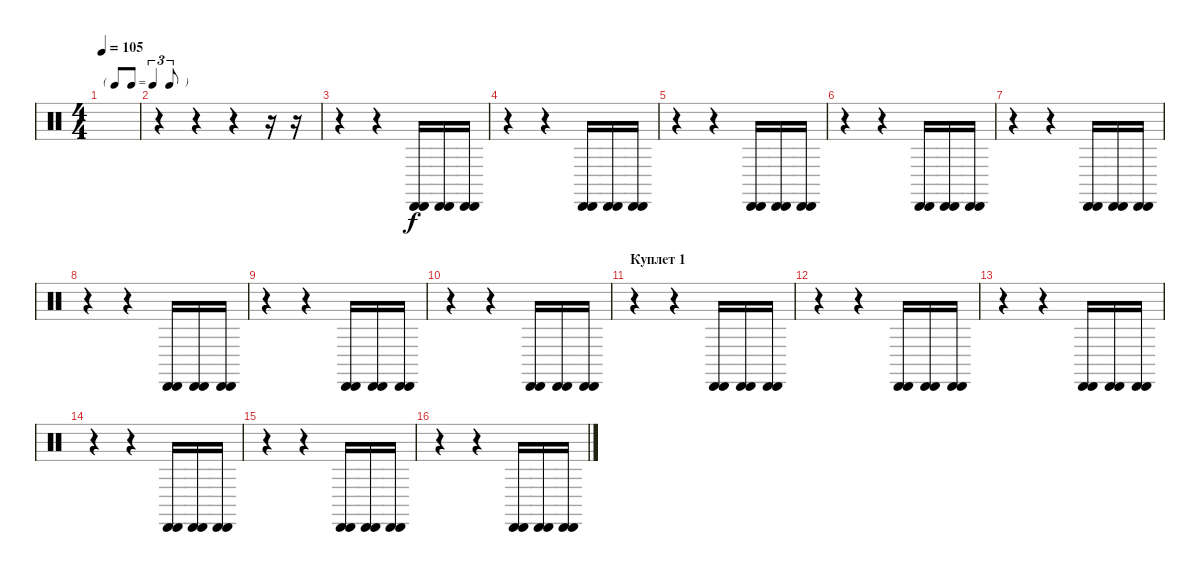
\track "" {instrument percussion}
\staff {score}
\articulation defaults
\ts (4 4)
\tf triplet8th
\tempo 105
\clef neutral
\ks c
|
r.4 r.4 r.4 r.16 r.16 |
r.4 r.4 ("Cabasa (hit)" "Cabasa (hit)").16 ("Cabasa (hit)" "Cabasa (hit)").16 ("Cabasa (hit)" "Cabasa (hit)").16 |
r.4 r.4 ("Cabasa (hit)" "Cabasa (hit)").16 ("Cabasa (hit)" "Cabasa (hit)").16 ("Cabasa (hit)" "Cabasa (hit)").16 |
r.4 r.4 ("Cabasa (hit)" "Cabasa (hit)").16 ("Cabasa (hit)" "Cabasa (hit)").16 ("Cabasa (hit)" "Cabasa (hit)").16 |
r.4 r.4 ("Cabasa (hit)" "Cabasa (hit)").16 ("Cabasa (hit)" "Cabasa (hit)").16 ("Cabasa (hit)" "Cabasa (hit)").16 |
r.4 r.4 ("Cabasa (hit)" "Cabasa (hit)").16 ("Cabasa (hit)" "Cabasa (hit)").16 ("Cabasa (hit)" "Cabasa (hit)").16 |
r.4 r.4 ("Cabasa (hit)" "Cabasa (hit)").16 ("Cabasa (hit)" "Cabasa (hit)").16 ("Cabasa (hit)" "Cabasa (hit)").16 |
r.4 r.4 ("Cabasa (hit)" "Cabasa (hit)").16 ("Cabasa (hit)" "Cabasa (hit)").16 ("Cabasa (hit)" "Cabasa (hit)").16 |
r.4 r.4 ("Cabasa (hit)" "Cabasa (hit)").16 ("Cabasa (hit)" "Cabasa (hit)").16 ("Cabasa (hit)" "Cabasa (hit)").16 |
\section ("" "Куплет 1")
r.4 r.4 ("Cabasa (hit)" "Cabasa (hit)").16 ("Cabasa (hit)" "Cabasa (hit)").16 ("Cabasa (hit)" "Cabasa (hit)").16 |
r.4 r.4 ("Cabasa (hit)" "Cabasa (hit)").16 ("Cabasa (hit)" "Cabasa (hit)").16 ("Cabasa (hit)" "Cabasa (hit)").16 |
r.4 r.4 ("Cabasa (hit)" "Cabasa (hit)").16 ("Cabasa (hit)" "Cabasa (hit)").16 ("Cabasa (hit)" "Cabasa (hit)").16 |
r.4 r.4 ("Cabasa (hit)" "Cabasa (hit)").16 ("Cabasa (hit)" "Cabasa (hit)").16 ("Cabasa (hit)" "Cabasa (hit)").16 |
r.4 r.4 ("Cabasa (hit)" "Cabasa (hit)").16 ("Cabasa (hit)" "Cabasa (hit)").16 ("Cabasa (hit)" "Cabasa (hit)").16 |
r.4 r.4 ("Cabasa (hit)" "Cabasa (hit)").16 ("Cabasa (hit)" "Cabasa (hit)").16 ("Cabasa (hit)" "Cabasa (hit)").16
